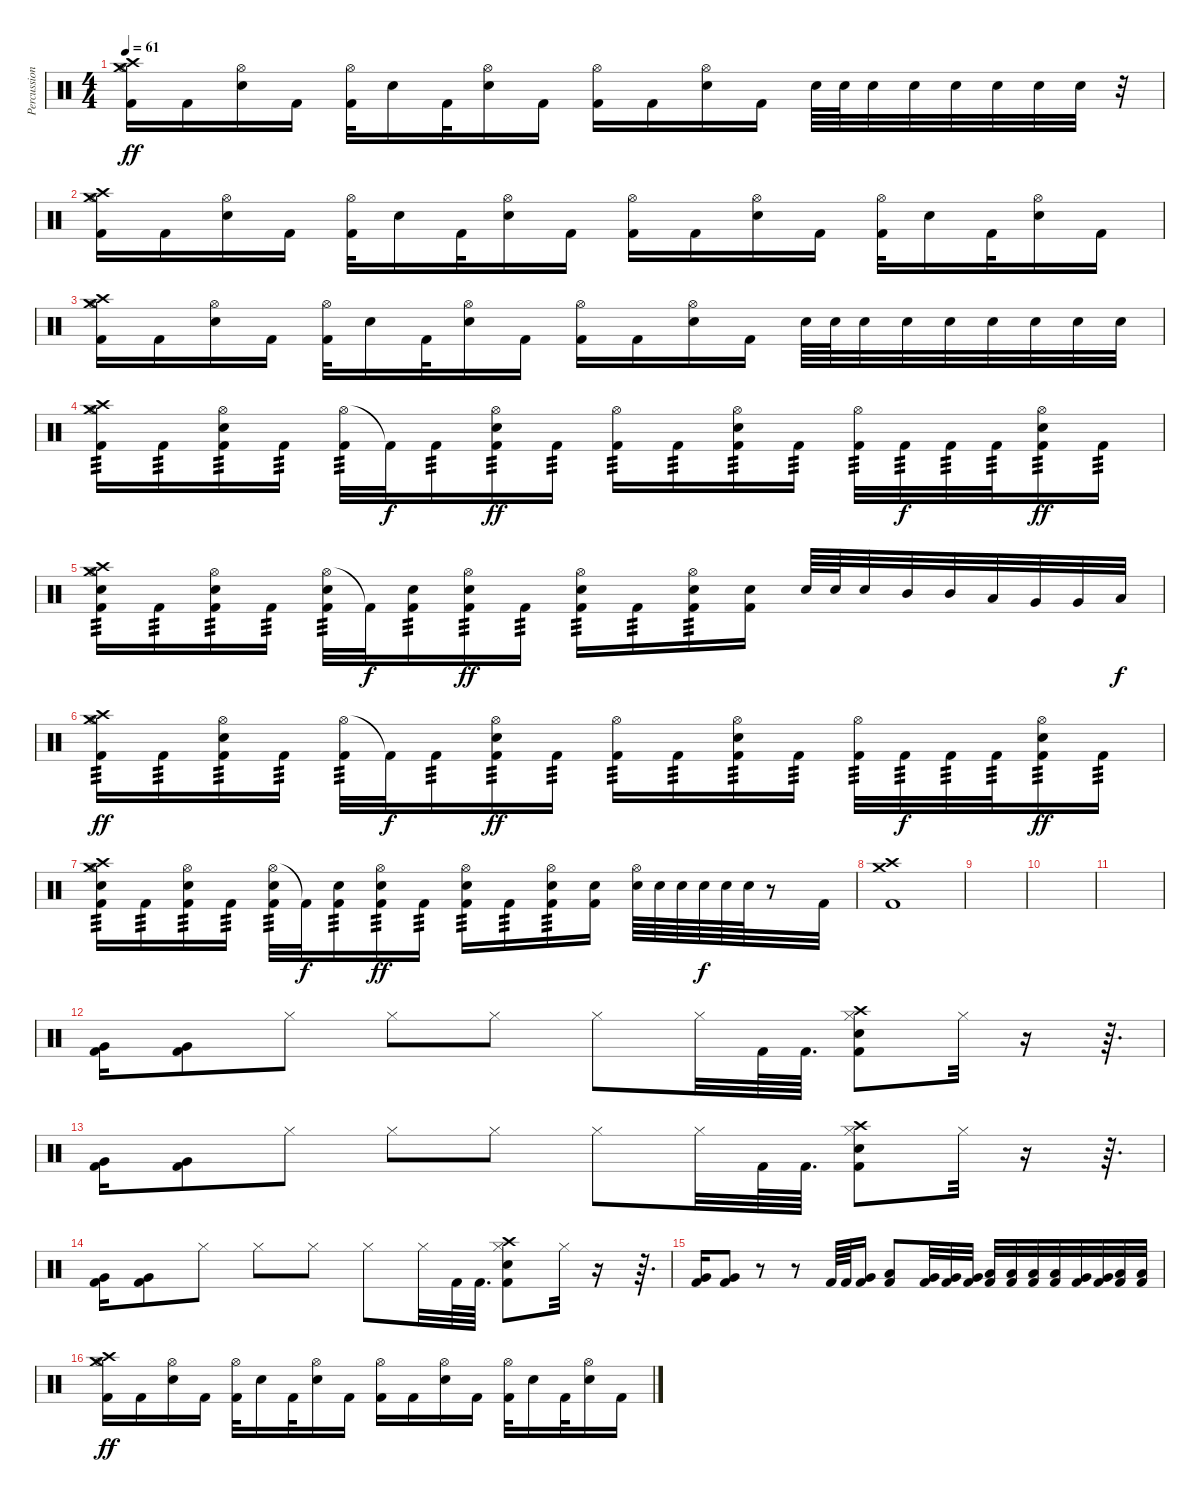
\track ("Percussion" "Percussion") {solo instrument percussion}
\staff {score}
\articulation defaults
\ts (4 4)
\tempo 61
\clef neutral
\ks c
("Crash medium (hit)" "Hi-Hat (open)" "Crash high (hit)" "Kick (hit) 2").16{dy ff} "Kick (hit) 2".16 ("Hi-Hat (open)" "Electric Snare (hit)").16 "Kick (hit) 2".16 ("Hi-Hat (open)" "Kick (hit) 2").32 "Electric Snare (hit)".16 "Kick (hit) 2".32 ("Hi-Hat (open)" "Electric Snare (hit)").16 "Kick (hit) 2".16 ("Hi-Hat (open)" "Kick (hit) 2").16 "Kick (hit) 2".16 ("Hi-Hat (open)" "Electric Snare (hit)").16 "Kick (hit) 2".16 "Electric Snare (hit)".64 "Electric Snare (hit)".64 "Electric Snare (hit)".32 "Electric Snare (hit)".32 "Electric Snare (hit)".32 "Electric Snare (hit)".32 "Electric Snare (hit)".32 "Electric Snare (hit)".32 r.32 |
("Crash medium (hit)" "Hi-Hat (open)" "Crash high (hit)" "Kick (hit) 2").16 "Kick (hit) 2".16 ("Hi-Hat (open)" "Electric Snare (hit)").16 "Kick (hit) 2".16 ("Hi-Hat (open)" "Kick (hit) 2").32 "Electric Snare (hit)".16 "Kick (hit) 2".32 ("Hi-Hat (open)" "Electric Snare (hit)").16 "Kick (hit) 2".16 ("Hi-Hat (open)" "Kick (hit) 2").16 "Kick (hit) 2".16 ("Hi-Hat (open)" "Electric Snare (hit)").16 "Kick (hit) 2".16 ("Hi-Hat (open)" "Kick (hit) 2").32 "Electric Snare (hit)".16 "Kick (hit) 2".32 ("Hi-Hat (open)" "Electric Snare (hit)").16 "Kick (hit) 2".16 |
("Crash medium (hit)" "Hi-Hat (open)" "Crash high (hit)" "Kick (hit) 2").16 "Kick (hit) 2".16 ("Hi-Hat (open)" "Electric Snare (hit)").16 "Kick (hit) 2".16 ("Hi-Hat (open)" "Kick (hit) 2").32 "Electric Snare (hit)".16 "Kick (hit) 2".32 ("Hi-Hat (open)" "Electric Snare (hit)").16 "Kick (hit) 2".16 ("Hi-Hat (open)" "Kick (hit) 2").16 "Kick (hit) 2".16 ("Hi-Hat (open)" "Electric Snare (hit)").16 "Kick (hit) 2".16 "Electric Snare (hit)".64 "Electric Snare (hit)".64 "Electric Snare (hit)".32 "Electric Snare (hit)".32 "Electric Snare (hit)".32 "Electric Snare (hit)".32 "Electric Snare (hit)".32 "Electric Snare (hit)".32 "Electric Snare (hit)".32 |
("Crash medium (hit)" "Hi-Hat (open)" "Crash high (hit)" "Kick (hit) 2").16{tp 3} "Kick (hit) 2".16{tp 3} ("Hi-Hat (open)" "Electric Snare (hit)" "Kick (hit) 2").16{tp 3} "Kick (hit) 2".16{tp 3} ("Hi-Hat (open)" "Kick (hit) 2").32{tp 3} "Kick (hit) 2"{t}.32{dy f} "Kick (hit) 2".16{tp 3} ("Hi-Hat (open)" "Electric Snare (hit)" "Kick (hit) 2").16{tp 3 dy ff} "Kick (hit) 2".16{tp 3} ("Hi-Hat (open)" "Kick (hit) 2").16{tp 3} "Kick (hit) 2".16{tp 3} ("Hi-Hat (open)" "Electric Snare (hit)" "Kick (hit) 2").16{tp 3} "Kick (hit) 2".16{tp 3} ("Hi-Hat (open)" "Kick (hit) 2").32{tp 3} "Kick (hit) 2".32{tp 3 dy f} "Kick (hit) 2".32{tp 3} "Kick (hit) 2".32{tp 3} ("Hi-Hat (open)" "Electric Snare (hit)" "Kick (hit) 2").16{tp 3 dy ff} "Kick (hit) 2".16{tp 3} |
("Crash medium (hit)" "Hi-Hat (open)" "Crash high (hit)" "Electric Snare (hit)" "Kick (hit) 2").16{tp 3} "Kick (hit) 2".16{tp 3} ("Hi-Hat (open)" "Electric Snare (hit)" "Kick (hit) 2").16{tp 3} "Kick (hit) 2".16{tp 3} ("Hi-Hat (open)" "Electric Snare (hit)" "Kick (hit) 2").32{tp 3} "Kick (hit) 2"{t}.32{dy f} ("Electric Snare (hit)" "Kick (hit) 2").16{tp 3} ("Hi-Hat (open)" "Electric Snare (hit)" "Kick (hit) 2").16{tp 3 dy ff} "Kick (hit) 2".16{tp 3} ("Hi-Hat (open)" "Electric Snare (hit)" "Kick (hit) 2").16{tp 3} "Kick (hit) 2".16{tp 3} ("Hi-Hat (open)" "Electric Snare (hit)" "Kick (hit) 2").16{tp 3} ("Electric Snare (hit)" "Kick (hit) 2").16 "Electric Snare (hit)".64 "Electric Snare (hit)".64 "Electric Snare (hit)".32 "Mid Tom (hit)".32 "Mid Tom (hit)".32 "Low Tom (hit)".32 "Very Low Tom (hit)".32 "Very Low Tom (hit)".32 "Low Floor Tom (hit)".32{dy f} |
("Crash medium (hit)" "Hi-Hat (open)" "Crash high (hit)" "Kick (hit) 2").16{tp 3 dy ff} "Kick (hit) 2".16{tp 3} ("Hi-Hat (open)" "Electric Snare (hit)" "Kick (hit) 2").16{tp 3} "Kick (hit) 2".16{tp 3} ("Hi-Hat (open)" "Kick (hit) 2").32{tp 3} "Kick (hit) 2"{t}.32{dy f} "Kick (hit) 2".16{tp 3} ("Hi-Hat (open)" "Electric Snare (hit)" "Kick (hit) 2").16{tp 3 dy ff} "Kick (hit) 2".16{tp 3} ("Hi-Hat (open)" "Kick (hit) 2").16{tp 3} "Kick (hit) 2".16{tp 3} ("Hi-Hat (open)" "Electric Snare (hit)" "Kick (hit) 2").16{tp 3} "Kick (hit) 2".16{tp 3} ("Hi-Hat (open)" "Kick (hit) 2").32{tp 3} "Kick (hit) 2".32{tp 3 dy f} "Kick (hit) 2".32{tp 3} "Kick (hit) 2".32{tp 3} ("Hi-Hat (open)" "Electric Snare (hit)" "Kick (hit) 2").16{tp 3 dy ff} "Kick (hit) 2".16{tp 3} |
("Crash medium (hit)" "Hi-Hat (open)" "Crash high (hit)" "Electric Snare (hit)" "Kick (hit) 2").16{tp 3} "Kick (hit) 2".16{tp 3} ("Hi-Hat (open)" "Electric Snare (hit)" "Kick (hit) 2").16{tp 3} "Kick (hit) 2".16{tp 3} ("Hi-Hat (open)" "Electric Snare (hit)" "Kick (hit) 2").32{tp 3} "Kick (hit) 2"{t}.32{dy f} ("Electric Snare (hit)" "Kick (hit) 2").16{tp 3} ("Hi-Hat (open)" "Electric Snare (hit)" "Kick (hit) 2").16{tp 3 dy ff} "Kick (hit) 2".16{tp 3} ("Hi-Hat (open)" "Electric Snare (hit)" "Kick (hit) 2").16{tp 3} "Kick (hit) 2".16{tp 3} ("Hi-Hat (open)" "Electric Snare (hit)" "Kick (hit) 2").16{tp 3} ("Electric Snare (hit)" "Kick (hit) 2").16 ("Hi-Hat (open)" "Electric Snare (hit)").64 "Electric Snare (hit)".64 "Electric Snare (hit)".64 "Electric Snare (hit)".64{dy f} "Electric Snare (hit)".64 "Electric Snare (hit)".64 r.8 "Kick (hit) 2".32 |
("Crash medium (hit)" "Crash high (hit)" "Kick (hit) 2").1 |
|
|
|
("Very Low Tom (hit)" "Kick (hit) 2").16 ("Very Low Tom (hit)" "Kick (hit) 2").8 "Hi-Hat (closed)".8 "Hi-Hat (closed)".8 "Hi-Hat (closed)".8 "Hi-Hat (closed)".8 "Hi-Hat (closed)".32 "Kick (hit) 2".64 "Kick (hit) 2".64{d} ("Crash high (hit)" "Hi-Hat (closed)" "Electric Snare (hit)" "Kick (hit) 2").8 "Hi-Hat (closed)".32 r.16 r.64{d} |
("Very Low Tom (hit)" "Kick (hit) 2").16 ("Very Low Tom (hit)" "Kick (hit) 2").8 "Hi-Hat (closed)".8 "Hi-Hat (closed)".8 "Hi-Hat (closed)".8 "Hi-Hat (closed)".8 "Hi-Hat (closed)".32 "Kick (hit) 2".64 "Kick (hit) 2".64{d} ("Crash high (hit)" "Hi-Hat (closed)" "Electric Snare (hit)" "Kick (hit) 2").8 "Hi-Hat (closed)".32 r.16 r.64{d} |
("Very Low Tom (hit)" "Kick (hit) 2").16 ("Very Low Tom (hit)" "Kick (hit) 2").8 "Hi-Hat (closed)".8 "Hi-Hat (closed)".8 "Hi-Hat (closed)".8 "Hi-Hat (closed)".8 "Hi-Hat (closed)".32 "Kick (hit) 2".64 "Kick (hit) 2".64{d} ("Crash high (hit)" "Hi-Hat (closed)" "Electric Snare (hit)" "Kick (hit) 2").8 "Hi-Hat (closed)".32 r.16 r.64{d} |
("Very Low Tom (hit)" "Kick (hit) 2").16 ("Very Low Tom (hit)" "Kick (hit) 2").8 r.8 r.8 "Kick (hit) 2".64 "Kick (hit) 2".64 ("Very Low Tom (hit)" "Kick (hit) 2").16 ("Low Floor Tom (hit)" "Kick (hit) 2").8 ("Very Low Tom (hit)" "Kick (hit) 2").32 ("Very Low Tom (hit)" "Kick (hit) 2").32 ("Very Low Tom (hit)" "Kick (hit) 2").32 ("Low Floor Tom (hit)" "Kick (hit) 2").32 ("Low Floor Tom (hit)" "Kick (hit) 2").32 ("Low Floor Tom (hit)" "Kick (hit) 2").32 ("Low Tom (hit)" "Kick (hit) 2").32 ("Very Low Tom (hit)" "Kick (hit) 2").32 ("Very Low Tom (hit)" "Kick (hit) 2").32 ("Low Floor Tom (hit)" "Kick (hit) 2").32 ("Low Floor Tom (hit)" "Kick (hit) 2").32 |
("Crash medium (hit)" "Hi-Hat (open)" "Crash high (hit)" "Kick (hit) 2").16{dy ff} "Kick (hit) 2".16 ("Hi-Hat (open)" "Electric Snare (hit)").16 "Kick (hit) 2".16 ("Hi-Hat (open)" "Kick (hit) 2").32 "Electric Snare (hit)".16 "Kick (hit) 2".32 ("Hi-Hat (open)" "Electric Snare (hit)").16 "Kick (hit) 2".16 ("Hi-Hat (open)" "Kick (hit) 2").16 "Kick (hit) 2".16 ("Hi-Hat (open)" "Electric Snare (hit)").16 "Kick (hit) 2".16 ("Hi-Hat (open)" "Kick (hit) 2").32 "Electric Snare (hit)".16 "Kick (hit) 2".32 ("Hi-Hat (open)" "Electric Snare (hit)").16 "Kick (hit) 2".16
